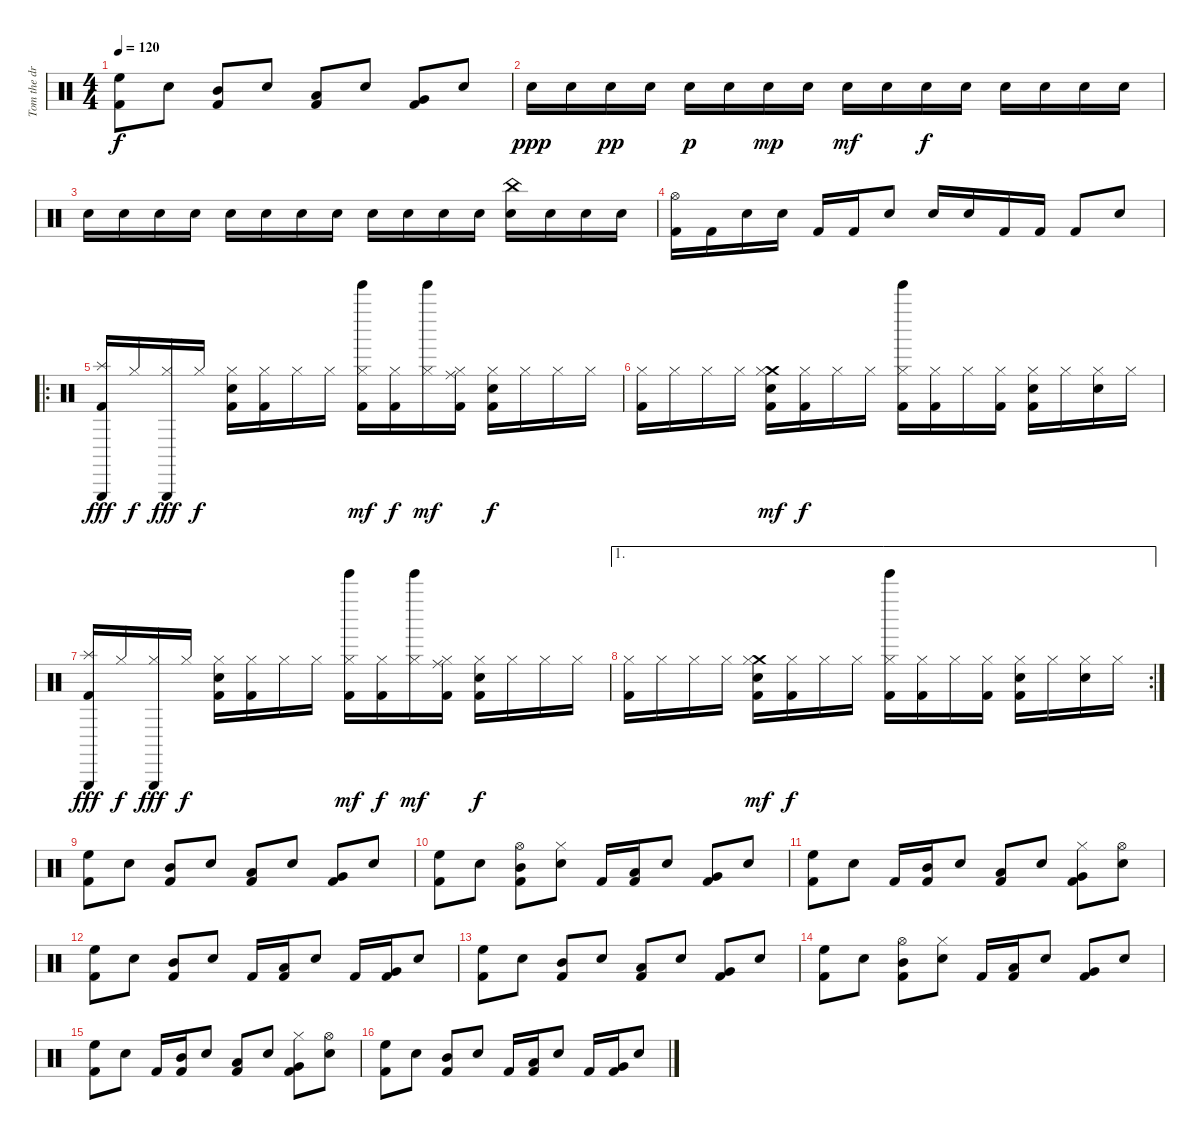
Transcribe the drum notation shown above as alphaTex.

\track ("Tom the drummer" "Tom the dr") {instrument percussion}
\staff {score}
\articulation defaults
\ts (4 4)
\tempo 120
\clef neutral
\ks c
("High Floor Tom (hit)" "Kick (hit) 2").8{dy f} "Snare (hit) 2".8 ("Mid Tom (hit)" "Kick (hit) 2").8 "Snare (hit) 2".8 ("Low Tom (hit)" "Kick (hit) 2").8 "Snare (hit) 2".8 ("Very Low Tom (hit)" "Kick (hit) 2").8 "Snare (hit) 2".8 |
"Snare (hit) 2".16{dy ppp} "Snare (hit) 2".16 "Snare (hit) 2".16{dy pp} "Snare (hit) 2".16 "Snare (hit) 2".16{dy p} "Snare (hit) 2".16 "Snare (hit) 2".16{dy mp} "Snare (hit) 2".16 "Snare (hit) 2".16{dy mf} "Snare (hit) 2".16 "Snare (hit) 2".16{dy f} "Snare (hit) 2".16 "Snare (hit) 2".16 "Snare (hit) 2".16 "Snare (hit) 2".16 "Snare (hit) 2".16 |
"Snare (hit) 2".16 "Snare (hit) 2".16 "Snare (hit) 2".16 "Snare (hit) 2".16 "Snare (hit) 2".16 "Snare (hit) 2".16 "Snare (hit) 2".16 "Snare (hit) 2".16 "Snare (hit) 2".16 "Snare (hit) 2".16 "Snare (hit) 2".16 "Snare (hit) 2".16 ("China (hit)" "Snare (hit) 2").16 "Snare (hit) 2".16 "Snare (hit) 2".16 "Snare (hit) 2".16 |
("Hi-Hat (open)" "Kick (hit) 2").16 "Kick (hit) 2".16 "Snare (hit) 2".16 "Snare (hit) 2".16 "Kick (hit) 2".16 "Kick (hit) 2".16 "Snare (hit) 2".8 "Snare (hit) 2".16 "Snare (hit) 2".16 "Kick (hit) 2".16 "Kick (hit) 2".16 "Kick (hit) 2".8 "Snare (hit) 2".8 |
\ro
("Triangle (hit)" "Splash (hit)" "Kick (hit) 2").16{dy fff} "Hi-Hat (closed)".16{dy f} ("Triangle (hit)" "Hi-Hat (closed)").16{dy fff} "Hi-Hat (closed)".16{dy f} ("Hi-Hat (closed)" "Snare (hit) 2" "Kick (hit) 2").16 ("Hi-Hat (closed)" "Kick (hit) 2").16 "Hi-Hat (closed)".16 "Hi-Hat (closed)".16 ("Tinkle Bell (hit)" "Hi-Hat (closed)" "Kick (hit) 2").16{dy mf} ("Hi-Hat (closed)" "Kick (hit) 2").16{dy f} ("Tinkle Bell (hit)" "Hi-Hat (closed)").16{dy mf} ("Ride (middle)" "Hi-Hat (closed)" "Kick (hit) 2").16 ("Hi-Hat (closed)" "Snare (hit) 2" "Kick (hit) 2").16{dy f} "Hi-Hat (closed)".16 "Hi-Hat (closed)".16 "Hi-Hat (closed)".16 |
("Hi-Hat (closed)" "Kick (hit) 2").16 "Hi-Hat (closed)".16 "Hi-Hat (closed)".16 "Hi-Hat (closed)".16 ("Crash medium (hit)" "Hi-Hat (closed)" "Snare (hit) 2" "Kick (hit) 2").16{dy mf} ("Hi-Hat (closed)" "Kick (hit) 2").16{dy f} "Hi-Hat (closed)".16 "Hi-Hat (closed)".16 ("Tinkle Bell (hit)" "Hi-Hat (closed)" "Kick (hit) 2").16 ("Hi-Hat (closed)" "Kick (hit) 2").16 "Hi-Hat (closed)".16 ("Hi-Hat (closed)" "Kick (hit) 2").16 ("Hi-Hat (closed)" "Snare (hit) 2" "Kick (hit) 2").16 "Hi-Hat (closed)".16 ("Hi-Hat (closed)" "Snare (hit) 2").16 "Hi-Hat (closed)".16 |
("Triangle (hit)" "Splash (hit)" "Kick (hit) 2").16{dy fff} "Hi-Hat (closed)".16{dy f} ("Triangle (hit)" "Hi-Hat (closed)").16{dy fff} "Hi-Hat (closed)".16{dy f} ("Hi-Hat (closed)" "Snare (hit) 2" "Kick (hit) 2").16 ("Hi-Hat (closed)" "Kick (hit) 2").16 "Hi-Hat (closed)".16 "Hi-Hat (closed)".16 ("Tinkle Bell (hit)" "Hi-Hat (closed)" "Kick (hit) 2").16{dy mf} ("Hi-Hat (closed)" "Kick (hit) 2").16{dy f} ("Tinkle Bell (hit)" "Hi-Hat (closed)").16{dy mf} ("Ride (middle)" "Hi-Hat (closed)" "Kick (hit) 2").16 ("Hi-Hat (closed)" "Snare (hit) 2" "Kick (hit) 2").16{dy f} "Hi-Hat (closed)".16 "Hi-Hat (closed)".16 "Hi-Hat (closed)".16 |
\ae 1
\rc 2
("Hi-Hat (closed)" "Kick (hit) 2").16 "Hi-Hat (closed)".16 "Hi-Hat (closed)".16 "Hi-Hat (closed)".16 ("Crash medium (hit)" "Hi-Hat (closed)" "Snare (hit) 2" "Kick (hit) 2").16{dy mf} ("Hi-Hat (closed)" "Kick (hit) 2").16{dy f} "Hi-Hat (closed)".16 "Hi-Hat (closed)".16 ("Tinkle Bell (hit)" "Hi-Hat (closed)" "Kick (hit) 2").16 ("Hi-Hat (closed)" "Kick (hit) 2").16 "Hi-Hat (closed)".16 ("Hi-Hat (closed)" "Kick (hit) 2").16 ("Hi-Hat (closed)" "Snare (hit) 2" "Kick (hit) 2").16 "Hi-Hat (closed)".16 ("Hi-Hat (closed)" "Snare (hit) 2").16 "Hi-Hat (closed)".16 |
("High Floor Tom (hit)" "Kick (hit) 2").8 "Snare (hit) 2".8 ("Mid Tom (hit)" "Kick (hit) 2").8 "Snare (hit) 2".8 ("Low Tom (hit)" "Kick (hit) 2").8 "Snare (hit) 2".8 ("Very Low Tom (hit)" "Kick (hit) 2").8 "Snare (hit) 2".8 |
("High Floor Tom (hit)" "Kick (hit) 2").8 "Snare (hit) 2".8 ("Hi-Hat (open)" "Mid Tom (hit)" "Kick (hit) 2").8 ("Hi-Hat (closed)" "Snare (hit) 2").8 "Kick (hit) 2".16 ("Low Tom (hit)" "Kick (hit) 2").16 "Snare (hit) 2".8 ("Very Low Tom (hit)" "Kick (hit) 2").8 "Snare (hit) 2".8 |
("High Floor Tom (hit)" "Kick (hit) 2").8 "Snare (hit) 2".8 "Kick (hit) 2".16 ("Mid Tom (hit)" "Kick (hit) 2").16 "Snare (hit) 2".8 ("Low Tom (hit)" "Kick (hit) 2").8 "Snare (hit) 2".8 ("Hi-Hat (closed)" "Very Low Tom (hit)" "Kick (hit) 2").8 ("Hi-Hat (open)" "Snare (hit) 2").8 |
("High Floor Tom (hit)" "Kick (hit) 2").8 "Snare (hit) 2".8 ("Mid Tom (hit)" "Kick (hit) 2").8 "Snare (hit) 2".8 "Kick (hit) 2".16 ("Low Tom (hit)" "Kick (hit) 2").16 "Snare (hit) 2".8 "Kick (hit) 2".16 ("Very Low Tom (hit)" "Kick (hit) 2").16 "Snare (hit) 2".8 |
("High Floor Tom (hit)" "Kick (hit) 2").8 "Snare (hit) 2".8 ("Mid Tom (hit)" "Kick (hit) 2").8 "Snare (hit) 2".8 ("Low Tom (hit)" "Kick (hit) 2").8 "Snare (hit) 2".8 ("Very Low Tom (hit)" "Kick (hit) 2").8 "Snare (hit) 2".8 |
("High Floor Tom (hit)" "Kick (hit) 2").8 "Snare (hit) 2".8 ("Hi-Hat (open)" "Mid Tom (hit)" "Kick (hit) 2").8 ("Hi-Hat (closed)" "Snare (hit) 2").8 "Kick (hit) 2".16 ("Low Tom (hit)" "Kick (hit) 2").16 "Snare (hit) 2".8 ("Very Low Tom (hit)" "Kick (hit) 2").8 "Snare (hit) 2".8 |
("High Floor Tom (hit)" "Kick (hit) 2").8 "Snare (hit) 2".8 "Kick (hit) 2".16 ("Mid Tom (hit)" "Kick (hit) 2").16 "Snare (hit) 2".8 ("Low Tom (hit)" "Kick (hit) 2").8 "Snare (hit) 2".8 ("Hi-Hat (closed)" "Very Low Tom (hit)" "Kick (hit) 2").8 ("Hi-Hat (open)" "Snare (hit) 2").8 |
("High Floor Tom (hit)" "Kick (hit) 2").8 "Snare (hit) 2".8 ("Mid Tom (hit)" "Kick (hit) 2").8 "Snare (hit) 2".8 "Kick (hit) 2".16 ("Low Tom (hit)" "Kick (hit) 2").16 "Snare (hit) 2".8 "Kick (hit) 2".16 ("Very Low Tom (hit)" "Kick (hit) 2").16 "Snare (hit) 2".8
